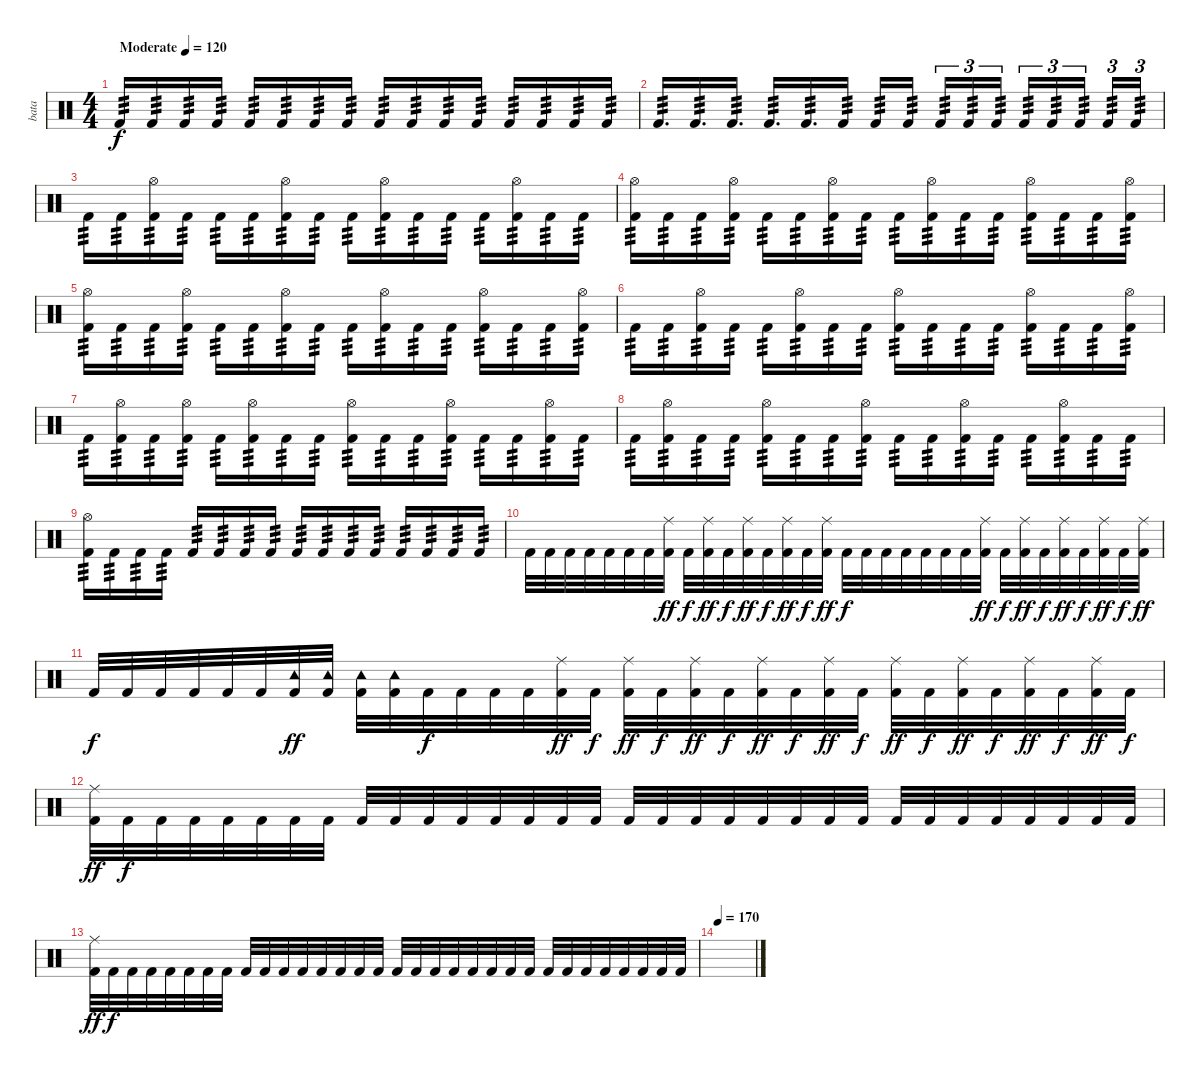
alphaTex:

\track ("bata" "bata") {instrument percussion}
\staff {score}
\articulation defaults
\ts (4 4)
\tempo (120 "Moderate")
\clef neutral
\ks c "Kick (hit) 2".16{tp 3 dy f} "Kick (hit) 2".16{tp 3} "Kick (hit) 2".16{tp 3} "Kick (hit) 2".16{tp 3} "Kick (hit) 2".16{tp 3} "Kick (hit) 2".16{tp 3} "Kick (hit) 2".16{tp 3} "Kick (hit) 2".16{tp 3} "Kick (hit) 2".16{tp 3} "Kick (hit) 2".16{tp 3} "Kick (hit) 2".16{tp 3} "Kick (hit) 2".16{tp 3} "Kick (hit) 2".16{tp 3} "Kick (hit) 2".16{tp 3} "Kick (hit) 2".16{tp 3} "Kick (hit) 2".16{tp 3}
|
"Kick (hit) 2".16{d tp 3} "Kick (hit) 2".16{d tp 3} "Kick (hit) 2".16{d tp 3} "Kick (hit) 2".16{d tp 3} "Kick (hit) 2".16{d tp 3} "Kick (hit) 2".16{tp 3} "Kick (hit) 2".16{tp 3} "Kick (hit) 2".16{tp 3 beam splitsecondary} "Kick (hit) 2".16{tu (3 2) tp 3} "Kick (hit) 2".16{tu (3 2) tp 3} "Kick (hit) 2".16{tu (3 2) tp 3} "Kick (hit) 2".16{tu (3 2) tp 3} "Kick (hit) 2".16{tu (3 2) tp 3} "Kick (hit) 2".16{tu (3 2) tp 3 beam splitsecondary} "Kick (hit) 2".16{tu (3 2) tp 3} "Kick (hit) 2".16{tu (3 2) tp 3} |
"Kick (hit) 2".16{tp 3} "Kick (hit) 2".16{tp 3} ("Kick (hit) 2" "Hi-Hat (open)").16{tp 3} "Kick (hit) 2".16{tp 3} "Kick (hit) 2".16{tp 3} "Kick (hit) 2".16{tp 3} ("Kick (hit) 2" "Hi-Hat (open)").16{tp 3} "Kick (hit) 2".16{tp 3} "Kick (hit) 2".16{tp 3} ("Kick (hit) 2" "Hi-Hat (open)").16{tp 3} "Kick (hit) 2".16{tp 3} "Kick (hit) 2".16{tp 3} "Kick (hit) 2".16{tp 3} ("Kick (hit) 2" "Hi-Hat (open)").16{tp 3} "Kick (hit) 2".16{tp 3} "Kick (hit) 2".16{tp 3} |
("Kick (hit) 2" "Hi-Hat (open)").16{tp 3} "Kick (hit) 2".16{tp 3} "Kick (hit) 2".16{tp 3} ("Kick (hit) 2" "Hi-Hat (open)").16{tp 3} "Kick (hit) 2".16{tp 3} "Kick (hit) 2".16{tp 3} ("Kick (hit) 2" "Hi-Hat (open)").16{tp 3} "Kick (hit) 2".16{tp 3} "Kick (hit) 2".16{tp 3} ("Kick (hit) 2" "Hi-Hat (open)").16{tp 3} "Kick (hit) 2".16{tp 3} "Kick (hit) 2".16{tp 3} ("Kick (hit) 2" "Hi-Hat (open)").16{tp 3} "Kick (hit) 2".16{tp 3} "Kick (hit) 2".16{tp 3} ("Kick (hit) 2" "Hi-Hat (open)").16{tp 3} |
("Kick (hit) 2" "Hi-Hat (open)").16{tp 3} "Kick (hit) 2".16{tp 3} "Kick (hit) 2".16{tp 3} ("Kick (hit) 2" "Hi-Hat (open)").16{tp 3} "Kick (hit) 2".16{tp 3} "Kick (hit) 2".16{tp 3} ("Kick (hit) 2" "Hi-Hat (open)").16{tp 3} "Kick (hit) 2".16{tp 3} "Kick (hit) 2".16{tp 3} ("Kick (hit) 2" "Hi-Hat (open)").16{tp 3} "Kick (hit) 2".16{tp 3} "Kick (hit) 2".16{tp 3} ("Kick (hit) 2" "Hi-Hat (open)").16{tp 3} "Kick (hit) 2".16{tp 3} "Kick (hit) 2".16{tp 3} ("Kick (hit) 2" "Hi-Hat (open)").16{tp 3} |
"Kick (hit) 2".16{tp 3} "Kick (hit) 2".16{tp 3} ("Kick (hit) 2" "Hi-Hat (open)").16{tp 3} "Kick (hit) 2".16{tp 3} "Kick (hit) 2".16{tp 3} ("Kick (hit) 2" "Hi-Hat (open)").16{tp 3} "Kick (hit) 2".16{tp 3} "Kick (hit) 2".16{tp 3} ("Kick (hit) 2" "Hi-Hat (open)").16{tp 3} "Kick (hit) 2".16{tp 3} "Kick (hit) 2".16{tp 3} "Kick (hit) 2".16{tp 3} ("Kick (hit) 2" "Hi-Hat (open)").16{tp 3} "Kick (hit) 2".16{tp 3} "Kick (hit) 2".16{tp 3} ("Kick (hit) 2" "Hi-Hat (open)").16{tp 3} |
"Kick (hit) 2".16{tp 3} ("Kick (hit) 2" "Hi-Hat (open)").16{tp 3} "Kick (hit) 2".16{tp 3} ("Kick (hit) 2" "Hi-Hat (open)").16{tp 3} "Kick (hit) 2".16{tp 3} ("Kick (hit) 2" "Hi-Hat (open)").16{tp 3} "Kick (hit) 2".16{tp 3} "Kick (hit) 2".16{tp 3} ("Kick (hit) 2" "Hi-Hat (open)").16{tp 3} "Kick (hit) 2".16{tp 3} "Kick (hit) 2".16{tp 3} ("Kick (hit) 2" "Hi-Hat (open)").16{tp 3} "Kick (hit) 2".16{tp 3} "Kick (hit) 2".16{tp 3} ("Kick (hit) 2" "Hi-Hat (open)").16{tp 3} "Kick (hit) 2".16{tp 3} |
"Kick (hit) 2".16{tp 3} ("Kick (hit) 2" "Hi-Hat (open)").16{tp 3} "Kick (hit) 2".16{tp 3} "Kick (hit) 2".16{tp 3} ("Kick (hit) 2" "Hi-Hat (open)").16{tp 3} "Kick (hit) 2".16{tp 3} "Kick (hit) 2".16{tp 3} ("Kick (hit) 2" "Hi-Hat (open)").16{tp 3} "Kick (hit) 2".16{tp 3} "Kick (hit) 2".16{tp 3} ("Kick (hit) 2" "Hi-Hat (open)").16{tp 3} "Kick (hit) 2".16{tp 3} "Kick (hit) 2".16{tp 3} ("Kick (hit) 2" "Hi-Hat (open)").16{tp 3} "Kick (hit) 2".16{tp 3} "Kick (hit) 2".16{tp 3} |
("Kick (hit) 2" "Hi-Hat (open)").16{tp 3} "Kick (hit) 2".16{tp 3} "Kick (hit) 2".16{tp 3} "Kick (hit) 2".16{tp 3} "Kick (hit) 2".16{tp 3} "Kick (hit) 2".16{tp 3} "Kick (hit) 2".16{tp 3} "Kick (hit) 2".16{tp 3} "Kick (hit) 2".16{tp 3} "Kick (hit) 2".16{tp 3} "Kick (hit) 2".16{tp 3} "Kick (hit) 2".16{tp 3} "Kick (hit) 2".16{tp 3} "Kick (hit) 2".16{tp 3} "Kick (hit) 2".16{tp 3} "Kick (hit) 2".16{tp 3} |
"Kick (hit) 2".32 "Kick (hit) 2".32 "Kick (hit) 2".32 "Kick (hit) 2".32 "Kick (hit) 2".32 "Kick (hit) 2".32 "Kick (hit) 2".32 ("Ride (middle)" "Kick (hit) 2").32{dy ff} "Kick (hit) 2".32{dy f} ("Ride (middle)" "Kick (hit) 2").32{dy ff} "Kick (hit) 2".32{dy f} ("Ride (middle)" "Kick (hit) 2").32{dy ff} "Kick (hit) 2".32{dy f} ("Ride (middle)" "Kick (hit) 2").32{dy ff} "Kick (hit) 2".32{dy f} ("Ride (middle)" "Kick (hit) 2").32{dy ff} "Kick (hit) 2".32{dy f} "Kick (hit) 2".32 "Kick (hit) 2".32 "Kick (hit) 2".32 "Kick (hit) 2".32 "Kick (hit) 2".32 "Kick (hit) 2".32 ("Ride (middle)" "Kick (hit) 2").32{dy ff} "Kick (hit) 2".32{dy f} ("Ride (middle)" "Kick (hit) 2").32{dy ff} "Kick (hit) 2".32{dy f} ("Ride (middle)" "Kick (hit) 2").32{dy ff} "Kick (hit) 2".32{dy f} ("Ride (middle)" "Kick (hit) 2").32{dy ff} "Kick (hit) 2".32{dy f} ("Ride (middle)" "Kick (hit) 2").32{dy ff} |
"Kick (hit) 2".32{dy f} "Kick (hit) 2".32 "Kick (hit) 2".32 "Kick (hit) 2".32 "Kick (hit) 2".32 "Kick (hit) 2".32 ("Tambourine (hit)" "Kick (hit) 2").32{dy ff} ("Tambourine (hit)" "Kick (hit) 2").32 ("Tambourine (hit)" "Kick (hit) 2").32 ("Tambourine (hit)" "Kick (hit) 2").32 "Kick (hit) 2".32{dy f} "Kick (hit) 2".32 "Kick (hit) 2".32 "Kick (hit) 2".32 ("Ride (middle)" "Kick (hit) 2").32{dy ff} "Kick (hit) 2".32{dy f} ("Ride (middle)" "Kick (hit) 2").32{dy ff} "Kick (hit) 2".32{dy f} ("Ride (middle)" "Kick (hit) 2").32{dy ff} "Kick (hit) 2".32{dy f} ("Ride (middle)" "Kick (hit) 2").32{dy ff} "Kick (hit) 2".32{dy f} ("Ride (middle)" "Kick (hit) 2").32{dy ff} "Kick (hit) 2".32{dy f} ("Ride (middle)" "Kick (hit) 2").32{dy ff} "Kick (hit) 2".32{dy f} ("Ride (middle)" "Kick (hit) 2").32{dy ff} "Kick (hit) 2".32{dy f} ("Ride (middle)" "Kick (hit) 2").32{dy ff} "Kick (hit) 2".32{dy f} ("Ride (middle)" "Kick (hit) 2").32{dy ff} "Kick (hit) 2".32{dy f} |
("Ride (middle)" "Kick (hit) 2").32{dy ff} "Kick (hit) 2".32{dy f} "Kick (hit) 2".32 "Kick (hit) 2".32 "Kick (hit) 2".32 "Kick (hit) 2".32 "Kick (hit) 2".32 "Kick (hit) 2".32 "Kick (hit) 2".32 "Kick (hit) 2".32 "Kick (hit) 2".32 "Kick (hit) 2".32 "Kick (hit) 2".32 "Kick (hit) 2".32 "Kick (hit) 2".32 "Kick (hit) 2".32 "Kick (hit) 2".32 "Kick (hit) 2".32 "Kick (hit) 2".32 "Kick (hit) 2".32 "Kick (hit) 2".32 "Kick (hit) 2".32 "Kick (hit) 2".32 "Kick (hit) 2".32 "Kick (hit) 2".32 "Kick (hit) 2".32 "Kick (hit) 2".32 "Kick (hit) 2".32 "Kick (hit) 2".32 "Kick (hit) 2".32 "Kick (hit) 2".32 "Kick (hit) 2".32 |
("Ride (middle)" "Kick (hit) 2").32{dy ff} "Kick (hit) 2".32{dy f} "Kick (hit) 2".32 "Kick (hit) 2".32 "Kick (hit) 2".32 "Kick (hit) 2".32 "Kick (hit) 2".32 "Kick (hit) 2".32 "Kick (hit) 2".32 "Kick (hit) 2".32 "Kick (hit) 2".32 "Kick (hit) 2".32 "Kick (hit) 2".32 "Kick (hit) 2".32 "Kick (hit) 2".32 "Kick (hit) 2".32 "Kick (hit) 2".32 "Kick (hit) 2".32 "Kick (hit) 2".32 "Kick (hit) 2".32 "Kick (hit) 2".32 "Kick (hit) 2".32 "Kick (hit) 2".32 "Kick (hit) 2".32 "Kick (hit) 2".32 "Kick (hit) 2".32 "Kick (hit) 2".32 "Kick (hit) 2".32 "Kick (hit) 2".32 "Kick (hit) 2".32 "Kick (hit) 2".32 "Kick (hit) 2".32 |
\tempo 170
